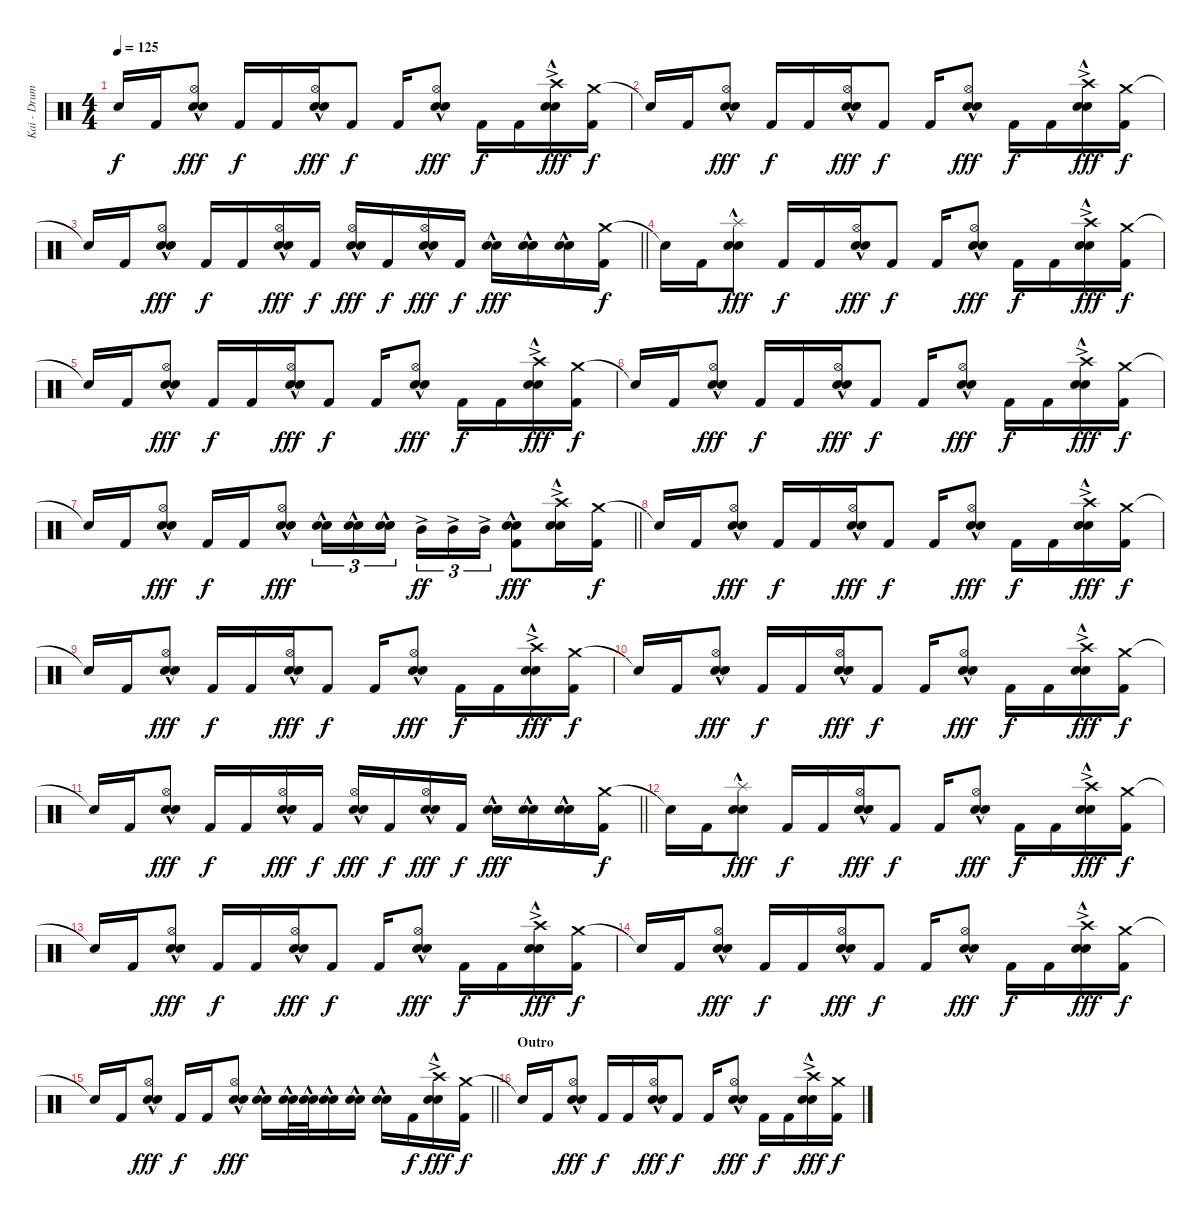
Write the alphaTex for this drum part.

\track ("Kai - Drums" "Kai - Drum") {instrument percussion}
\staff {score}
\articulation defaults
\ts (4 4)
\tempo 125
\clef neutral
\ks c "Snare (hit)"{t}.16{dy f} "Kick (hit) 2".16
("Hi-Hat (open)" "Electric Snare (hit)"{hac} "Snare (hit) 2").8{dy fff} "Kick (hit) 2".16{dy f} "Kick (hit) 2".16 ("Hi-Hat (open)" "Electric Snare (hit)"{hac} "Snare (hit) 2").16{dy fff} "Kick (hit) 2".8{dy f} "Kick (hit) 2".16 ("Hi-Hat (open)" "Electric Snare (hit)"{hac} "Snare (hit) 2").8{dy fff} "Kick (hit) 2".16{dy f} "Kick (hit) 2".16 ("Crash high (hit)"{ac} "Electric Snare (hit)"{hac} "Snare (hit) 2").16{dy fff} ("Crash medium (hit)" "Kick (hit) 2").16{dy f} |
"Snare (hit)"{t}.16 "Kick (hit) 2".16 ("Hi-Hat (open)" "Electric Snare (hit)"{hac} "Snare (hit) 2").8{dy fff} "Kick (hit) 2".16{dy f} "Kick (hit) 2".16 ("Hi-Hat (open)" "Electric Snare (hit)"{hac} "Snare (hit) 2").16{dy fff} "Kick (hit) 2".8{dy f} "Kick (hit) 2".16 ("Hi-Hat (open)" "Electric Snare (hit)"{hac} "Snare (hit) 2").8{dy fff} "Kick (hit) 2".16{dy f} "Kick (hit) 2".16 ("Crash high (hit)"{ac} "Electric Snare (hit)"{hac} "Snare (hit) 2").16{dy fff} ("Crash medium (hit)" "Kick (hit) 2").16{dy f} |
\barLineRight lightlight "Snare (hit)"{t}.16 "Kick (hit) 2".16
("Hi-Hat (open)" "Electric Snare (hit)"{hac} "Snare (hit) 2").8{dy fff} "Kick (hit) 2".16{dy f} "Kick (hit) 2".16 ("Hi-Hat (open)" "Electric Snare (hit)"{hac} "Snare (hit) 2").16{dy fff} "Kick (hit) 2".16{dy f} ("Hi-Hat (open)" "Electric Snare (hit)"{hac} "Snare (hit) 2").16{dy fff} "Kick (hit) 2".16{dy f} ("Hi-Hat (open)" "Electric Snare (hit)"{hac} "Snare (hit) 2").16{dy fff} "Kick (hit) 2".16{dy f} ("Electric Snare (hit)"{hac} "Snare (hit) 2").16{dy fff} ("Electric Snare (hit)"{hac} "Snare (hit) 2").16 ("Electric Snare (hit)"{hac} "Snare (hit) 2").16 ("Crash medium (hit)" "Kick (hit) 2").16{dy f} |
"Snare (hit)"{t}.16 "Kick (hit) 2".16 ("Splash (hit)"{hac} "Electric Snare (hit)"{hac} "Snare (hit) 2").8{dy fff} "Kick (hit) 2".16{dy f} "Kick (hit) 2".16 ("Hi-Hat (open)" "Electric Snare (hit)"{hac} "Snare (hit) 2").16{dy fff} "Kick (hit) 2".8{dy f} "Kick (hit) 2".16 ("Hi-Hat (open)" "Electric Snare (hit)"{hac} "Snare (hit) 2").8{dy fff} "Kick (hit) 2".16{dy f} "Kick (hit) 2".16 ("Crash high (hit)"{ac} "Electric Snare (hit)"{hac} "Snare (hit) 2").16{dy fff} ("Crash medium (hit)" "Kick (hit) 2").16{dy f} |
"Snare (hit)"{t}.16 "Kick (hit) 2".16 ("Hi-Hat (open)" "Electric Snare (hit)"{hac} "Snare (hit) 2").8{dy fff} "Kick (hit) 2".16{dy f} "Kick (hit) 2".16 ("Hi-Hat (open)" "Electric Snare (hit)"{hac} "Snare (hit) 2").16{dy fff} "Kick (hit) 2".8{dy f} "Kick (hit) 2".16 ("Hi-Hat (open)" "Electric Snare (hit)"{hac} "Snare (hit) 2").8{dy fff} "Kick (hit) 2".16{dy f} "Kick (hit) 2".16 ("Crash high (hit)"{ac} "Electric Snare (hit)"{hac} "Snare (hit) 2").16{dy fff} ("Crash medium (hit)" "Kick (hit) 2").16{dy f} |
"Snare (hit)"{t}.16 "Kick (hit) 2".16 ("Hi-Hat (open)" "Electric Snare (hit)"{hac} "Snare (hit) 2").8{dy fff} "Kick (hit) 2".16{dy f} "Kick (hit) 2".16 ("Hi-Hat (open)" "Electric Snare (hit)"{hac} "Snare (hit) 2").16{dy fff} "Kick (hit) 2".8{dy f} "Kick (hit) 2".16 ("Hi-Hat (open)" "Electric Snare (hit)"{hac} "Snare (hit) 2").8{dy fff} "Kick (hit) 2".16{dy f} "Kick (hit) 2".16 ("Crash high (hit)"{ac} "Electric Snare (hit)"{hac} "Snare (hit) 2").16{dy fff} ("Crash medium (hit)" "Kick (hit) 2").16{dy f} |
\barLineRight lightlight "Snare (hit)"{t}.16 "Kick (hit) 2".16
("Hi-Hat (open)" "Electric Snare (hit)"{hac} "Snare (hit) 2").8{dy fff} "Kick (hit) 2".16{dy f} "Kick (hit) 2".16 ("Hi-Hat (open)" "Electric Snare (hit)"{hac} "Snare (hit) 2").8{dy fff} ("Electric Snare (hit)"{hac} "Snare (hit) 2").16{tu (3 2)} ("Electric Snare (hit)"{hac} "Snare (hit) 2").16{tu (3 2)} ("Electric Snare (hit)"{hac} "Snare (hit) 2").16{tu (3 2) beam splitsecondary} "Mid Tom (hit)"{ac}.16{tu (3 2) dy ff} "Mid Tom (hit)"{ac}.16{tu (3 2)} "Mid Tom (hit)"{ac}.16{tu (3 2)} ("Electric Snare (hit)"{hac} "Snare (hit) 2" "Kick (hit) 2").8{dy fff} ("Crash high (hit)"{ac} "Electric Snare (hit)"{hac} "Snare (hit) 2").16 ("Crash medium (hit)" "Kick (hit) 2").16{dy f} |
\section ("" "")
"Snare (hit)"{t}.16 "Kick (hit) 2".16 ("Hi-Hat (open)" "Electric Snare (hit)"{hac} "Snare (hit) 2").8{dy fff} "Kick (hit) 2".16{dy f} "Kick (hit) 2".16 ("Hi-Hat (open)" "Electric Snare (hit)"{hac} "Snare (hit) 2").16{dy fff} "Kick (hit) 2".8{dy f} "Kick (hit) 2".16 ("Hi-Hat (open)" "Electric Snare (hit)"{hac} "Snare (hit) 2").8{dy fff} "Kick (hit) 2".16{dy f} "Kick (hit) 2".16 ("Crash high (hit)"{ac} "Electric Snare (hit)"{hac} "Snare (hit) 2").16{dy fff} ("Crash medium (hit)" "Kick (hit) 2").16{dy f} |
"Snare (hit)"{t}.16 "Kick (hit) 2".16 ("Hi-Hat (open)" "Electric Snare (hit)"{hac} "Snare (hit) 2").8{dy fff} "Kick (hit) 2".16{dy f} "Kick (hit) 2".16 ("Hi-Hat (open)" "Electric Snare (hit)"{hac} "Snare (hit) 2").16{dy fff} "Kick (hit) 2".8{dy f} "Kick (hit) 2".16 ("Hi-Hat (open)" "Electric Snare (hit)"{hac} "Snare (hit) 2").8{dy fff} "Kick (hit) 2".16{dy f} "Kick (hit) 2".16 ("Crash high (hit)"{ac} "Electric Snare (hit)"{hac} "Snare (hit) 2").16{dy fff} ("Crash medium (hit)" "Kick (hit) 2").16{dy f} |
"Snare (hit)"{t}.16 "Kick (hit) 2".16 ("Hi-Hat (open)" "Electric Snare (hit)"{hac} "Snare (hit) 2").8{dy fff} "Kick (hit) 2".16{dy f} "Kick (hit) 2".16 ("Hi-Hat (open)" "Electric Snare (hit)"{hac} "Snare (hit) 2").16{dy fff} "Kick (hit) 2".8{dy f} "Kick (hit) 2".16 ("Hi-Hat (open)" "Electric Snare (hit)"{hac} "Snare (hit) 2").8{dy fff} "Kick (hit) 2".16{dy f} "Kick (hit) 2".16 ("Crash high (hit)"{ac} "Electric Snare (hit)"{hac} "Snare (hit) 2").16{dy fff} ("Crash medium (hit)" "Kick (hit) 2").16{dy f} |
\barLineRight lightlight "Snare (hit)"{t}.16 "Kick (hit) 2".16
("Hi-Hat (open)" "Electric Snare (hit)"{hac} "Snare (hit) 2").8{dy fff} "Kick (hit) 2".16{dy f} "Kick (hit) 2".16 ("Hi-Hat (open)" "Electric Snare (hit)"{hac} "Snare (hit) 2").16{dy fff} "Kick (hit) 2".16{dy f} ("Hi-Hat (open)" "Electric Snare (hit)"{hac} "Snare (hit) 2").16{dy fff} "Kick (hit) 2".16{dy f} ("Hi-Hat (open)" "Electric Snare (hit)"{hac} "Snare (hit) 2").16{dy fff} "Kick (hit) 2".16{dy f} ("Electric Snare (hit)"{hac} "Snare (hit) 2").16{dy fff} ("Electric Snare (hit)"{hac} "Snare (hit) 2").16 ("Electric Snare (hit)"{hac} "Snare (hit) 2").16 ("Crash medium (hit)" "Kick (hit) 2").16{dy f} |
"Snare (hit)"{t}.16 "Kick (hit) 2".16 ("Splash (hit)"{hac} "Electric Snare (hit)"{hac} "Snare (hit) 2").8{dy fff} "Kick (hit) 2".16{dy f} "Kick (hit) 2".16 ("Hi-Hat (open)" "Electric Snare (hit)"{hac} "Snare (hit) 2").16{dy fff} "Kick (hit) 2".8{dy f} "Kick (hit) 2".16 ("Hi-Hat (open)" "Electric Snare (hit)"{hac} "Snare (hit) 2").8{dy fff} "Kick (hit) 2".16{dy f} "Kick (hit) 2".16 ("Crash high (hit)"{ac} "Electric Snare (hit)"{hac} "Snare (hit) 2").16{dy fff} ("Crash medium (hit)" "Kick (hit) 2").16{dy f} |
"Snare (hit)"{t}.16 "Kick (hit) 2".16 ("Hi-Hat (open)" "Electric Snare (hit)"{hac} "Snare (hit) 2").8{dy fff} "Kick (hit) 2".16{dy f} "Kick (hit) 2".16 ("Hi-Hat (open)" "Electric Snare (hit)"{hac} "Snare (hit) 2").16{dy fff} "Kick (hit) 2".8{dy f} "Kick (hit) 2".16 ("Hi-Hat (open)" "Electric Snare (hit)"{hac} "Snare (hit) 2").8{dy fff} "Kick (hit) 2".16{dy f} "Kick (hit) 2".16 ("Crash high (hit)"{ac} "Electric Snare (hit)"{hac} "Snare (hit) 2").16{dy fff} ("Crash medium (hit)" "Kick (hit) 2").16{dy f} |
"Snare (hit)"{t}.16 "Kick (hit) 2".16 ("Hi-Hat (open)" "Electric Snare (hit)"{hac} "Snare (hit) 2").8{dy fff} "Kick (hit) 2".16{dy f} "Kick (hit) 2".16 ("Hi-Hat (open)" "Electric Snare (hit)"{hac} "Snare (hit) 2").16{dy fff} "Kick (hit) 2".8{dy f} "Kick (hit) 2".16 ("Hi-Hat (open)" "Electric Snare (hit)"{hac} "Snare (hit) 2").8{dy fff} "Kick (hit) 2".16{dy f} "Kick (hit) 2".16 ("Crash high (hit)"{ac} "Electric Snare (hit)"{hac} "Snare (hit) 2").16{dy fff} ("Crash medium (hit)" "Kick (hit) 2").16{dy f} |
\barLineRight lightlight "Snare (hit)"{t}.16 "Kick (hit) 2".16
("Hi-Hat (open)" "Electric Snare (hit)"{hac} "Snare (hit) 2").8{dy fff} "Kick (hit) 2".16{dy f} "Kick (hit) 2".16 ("Hi-Hat (open)" "Electric Snare (hit)"{hac} "Snare (hit) 2").8{dy fff} ("Electric Snare (hit)"{hac} "Snare (hit) 2").16 ("Electric Snare (hit)"{hac} "Snare (hit) 2").32 ("Electric Snare (hit)"{hac} "Snare (hit) 2").32 ("Electric Snare (hit)"{hac} "Snare (hit) 2").16 ("Electric Snare (hit)"{hac} "Snare (hit) 2").16 ("Electric Snare (hit)"{hac} "Snare (hit) 2").16 "Kick (hit) 2".16{dy f} ("Crash high (hit)"{ac} "Electric Snare (hit)"{hac} "Snare (hit) 2").16{dy fff} ("Crash medium (hit)" "Kick (hit) 2").16{dy f} |
\section ("" "Outro")
"Snare (hit)"{t}.16 "Kick (hit) 2".16 ("Hi-Hat (open)" "Electric Snare (hit)"{hac} "Snare (hit) 2").8{dy fff} "Kick (hit) 2".16{dy f} "Kick (hit) 2".16 ("Hi-Hat (open)" "Electric Snare (hit)"{hac} "Snare (hit) 2").16{dy fff} "Kick (hit) 2".8{dy f} "Kick (hit) 2".16 ("Hi-Hat (open)" "Electric Snare (hit)"{hac} "Snare (hit) 2").8{dy fff} "Kick (hit) 2".16{dy f} "Kick (hit) 2".16 ("Crash high (hit)"{ac} "Electric Snare (hit)"{hac} "Snare (hit) 2").16{dy fff} ("Crash medium (hit)" "Kick (hit) 2").16{dy f}
